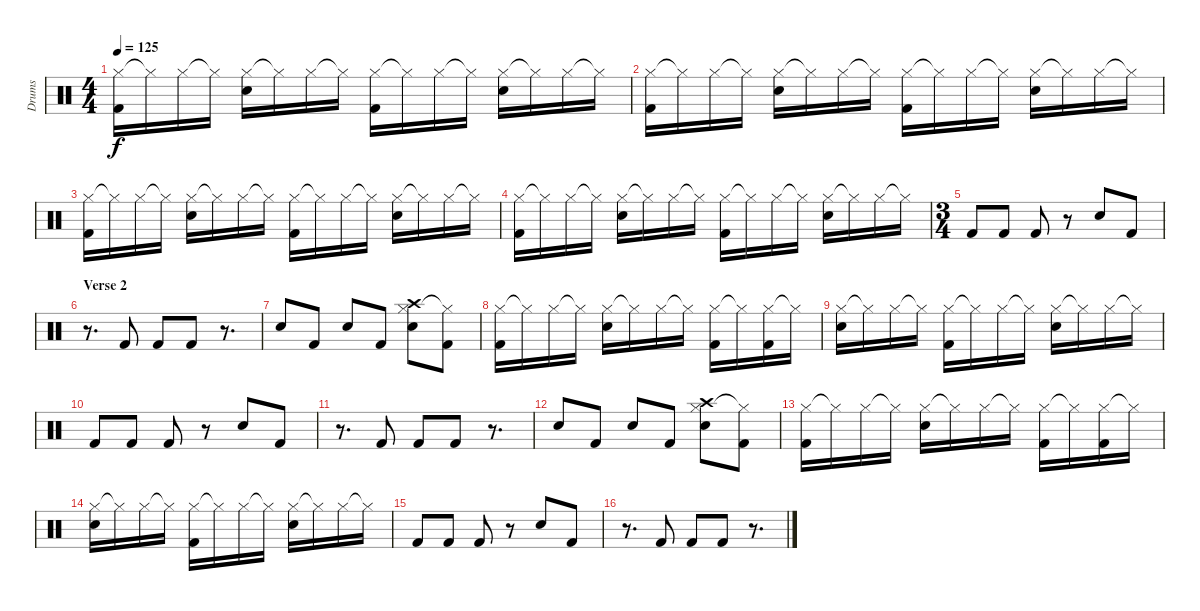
\track ("Drums" "Drums") {instrument percussion}
\staff {score}
\articulation defaults
\ts (4 4)
\tempo 125
\clef neutral
\ks c
("Hi-Hat (closed)" "Kick (hit) 2").16{dy f} "Hi-Hat (closed)"{t}.16 "Hi-Hat (closed)".16 "Hi-Hat (closed)"{t}.16 ("Hi-Hat (closed)" "Snare (hit) 2").16 "Hi-Hat (closed)"{t}.16 "Hi-Hat (closed)".16 "Hi-Hat (closed)"{t}.16 ("Hi-Hat (closed)" "Kick (hit) 2").16 "Hi-Hat (closed)"{t}.16 "Hi-Hat (closed)".16 "Hi-Hat (closed)"{t}.16 ("Hi-Hat (closed)" "Snare (hit) 2").16 "Hi-Hat (closed)"{t}.16 "Hi-Hat (closed)".16 "Hi-Hat (closed)"{t}.16 |
("Hi-Hat (closed)" "Kick (hit) 2").16 "Hi-Hat (closed)"{t}.16 "Hi-Hat (closed)".16 "Hi-Hat (closed)"{t}.16 ("Hi-Hat (closed)" "Snare (hit) 2").16 "Hi-Hat (closed)"{t}.16 "Hi-Hat (closed)".16 "Hi-Hat (closed)"{t}.16 ("Hi-Hat (closed)" "Kick (hit) 2").16 "Hi-Hat (closed)"{t}.16 "Hi-Hat (closed)".16 "Hi-Hat (closed)"{t}.16 ("Hi-Hat (closed)" "Snare (hit) 2").16 "Hi-Hat (closed)"{t}.16 "Hi-Hat (closed)".16 "Hi-Hat (closed)"{t}.16 |
("Hi-Hat (closed)" "Kick (hit) 2").16 "Hi-Hat (closed)"{t}.16 "Hi-Hat (closed)".16 "Hi-Hat (closed)"{t}.16 ("Hi-Hat (closed)" "Snare (hit) 2").16 "Hi-Hat (closed)"{t}.16 "Hi-Hat (closed)".16 "Hi-Hat (closed)"{t}.16 ("Hi-Hat (closed)" "Kick (hit) 2").16 "Hi-Hat (closed)"{t}.16 "Hi-Hat (closed)".16 "Hi-Hat (closed)"{t}.16 ("Hi-Hat (closed)" "Snare (hit) 2").16 "Hi-Hat (closed)"{t}.16 "Hi-Hat (closed)".16 "Hi-Hat (closed)"{t}.16 |
("Hi-Hat (closed)" "Kick (hit) 2").16 "Hi-Hat (closed)"{t}.16 "Hi-Hat (closed)".16 "Hi-Hat (closed)"{t}.16 ("Hi-Hat (closed)" "Snare (hit) 2").16 "Hi-Hat (closed)"{t}.16 "Hi-Hat (closed)".16 "Hi-Hat (closed)"{t}.16 ("Hi-Hat (closed)" "Kick (hit) 2").16 "Hi-Hat (closed)"{t}.16 "Hi-Hat (closed)".16 "Hi-Hat (closed)"{t}.16 ("Hi-Hat (closed)" "Snare (hit) 2").16 "Hi-Hat (closed)"{t}.16 "Hi-Hat (closed)".16 "Hi-Hat (closed)"{t}.16 |
\ts (3 4)
\section ("" "")
"Kick (hit) 2".8 "Kick (hit) 2".8 "Kick (hit) 2".8 r.8 "Snare (hit) 2".8 "Kick (hit) 2".8 |
\section ("" "Verse 2")
r.8{d} "Kick (hit) 2".8 "Kick (hit) 2".8 "Kick (hit) 2".8 r.8{d} |
"Snare (hit) 2".8 "Kick (hit) 2".8 "Snare (hit) 2".8 "Kick (hit) 2".8 ("Hi-Hat (closed)" "Snare (hit) 2" "Crash high (hit)").8 ("Hi-Hat (closed)"{t} "Kick (hit) 2").8 |
("Hi-Hat (closed)" "Kick (hit) 2").16 "Hi-Hat (closed)"{t}.16 "Hi-Hat (closed)".16 "Hi-Hat (closed)"{t}.16 ("Hi-Hat (closed)" "Snare (hit) 2").16 "Hi-Hat (closed)"{t}.16 "Hi-Hat (closed)".16 "Hi-Hat (closed)"{t}.16 ("Hi-Hat (closed)" "Kick (hit) 2").16 "Hi-Hat (closed)"{t}.16 ("Hi-Hat (closed)" "Kick (hit) 2").16 "Hi-Hat (closed)"{t}.16 |
("Hi-Hat (closed)" "Snare (hit) 2").16 "Hi-Hat (closed)"{t}.16 "Hi-Hat (closed)".16 "Hi-Hat (closed)"{t}.16 ("Hi-Hat (closed)" "Kick (hit) 2").16 "Hi-Hat (closed)"{t}.16 "Hi-Hat (closed)".16 "Hi-Hat (closed)"{t}.16 ("Hi-Hat (closed)" "Snare (hit) 2").16 "Hi-Hat (closed)"{t}.16 "Hi-Hat (closed)".16 "Hi-Hat (closed)"{t}.16 |
"Kick (hit) 2".8 "Kick (hit) 2".8 "Kick (hit) 2".8 r.8 "Snare (hit) 2".8 "Kick (hit) 2".8 |
r.8{d} "Kick (hit) 2".8 "Kick (hit) 2".8 "Kick (hit) 2".8 r.8{d} |
"Snare (hit) 2".8 "Kick (hit) 2".8 "Snare (hit) 2".8 "Kick (hit) 2".8 ("Hi-Hat (closed)" "Snare (hit) 2" "Crash high (hit)").8 ("Hi-Hat (closed)"{t} "Kick (hit) 2").8 |
("Hi-Hat (closed)" "Kick (hit) 2").16 "Hi-Hat (closed)"{t}.16 "Hi-Hat (closed)".16 "Hi-Hat (closed)"{t}.16 ("Hi-Hat (closed)" "Snare (hit) 2").16 "Hi-Hat (closed)"{t}.16 "Hi-Hat (closed)".16 "Hi-Hat (closed)"{t}.16 ("Hi-Hat (closed)" "Kick (hit) 2").16 "Hi-Hat (closed)"{t}.16 ("Hi-Hat (closed)" "Kick (hit) 2").16 "Hi-Hat (closed)"{t}.16 |
("Hi-Hat (closed)" "Snare (hit) 2").16 "Hi-Hat (closed)"{t}.16 "Hi-Hat (closed)".16 "Hi-Hat (closed)"{t}.16 ("Hi-Hat (closed)" "Kick (hit) 2").16 "Hi-Hat (closed)"{t}.16 "Hi-Hat (closed)".16 "Hi-Hat (closed)"{t}.16 ("Hi-Hat (closed)" "Snare (hit) 2").16 "Hi-Hat (closed)"{t}.16 "Hi-Hat (closed)".16 "Hi-Hat (closed)"{t}.16 |
"Kick (hit) 2".8 "Kick (hit) 2".8 "Kick (hit) 2".8 r.8 "Snare (hit) 2".8 "Kick (hit) 2".8 |
r.8{d} "Kick (hit) 2".8 "Kick (hit) 2".8 "Kick (hit) 2".8 r.8{d}
